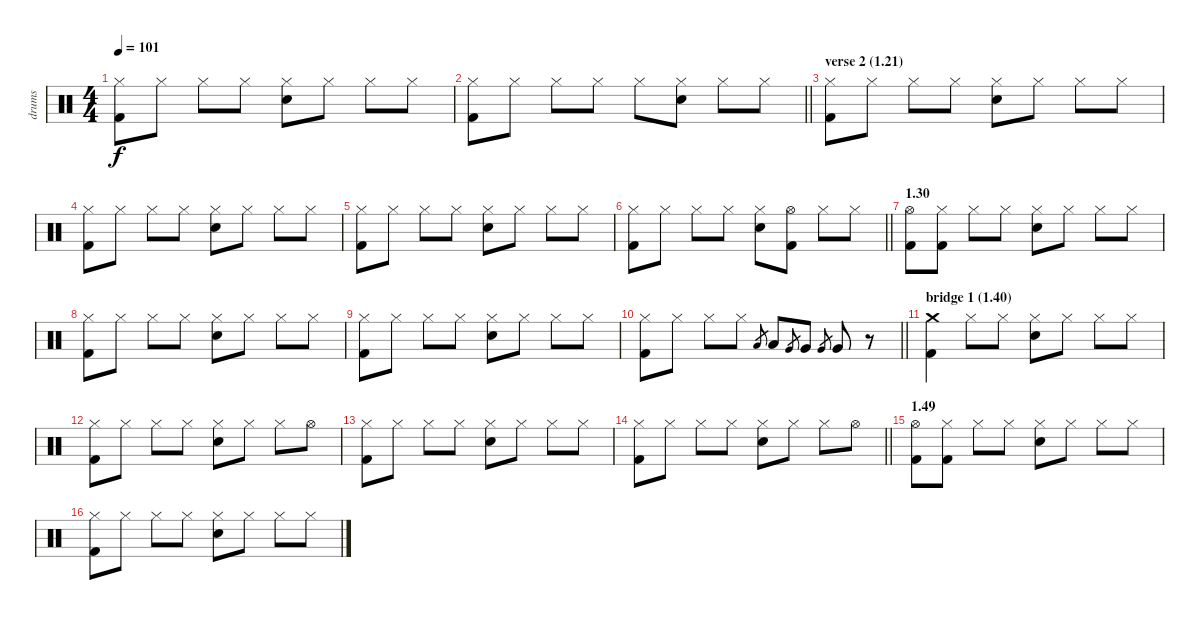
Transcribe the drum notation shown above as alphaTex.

\track ("drums" "drums") {instrument percussion}
\staff {score}
\articulation defaults
\ts (4 4)
\tempo 101
\clef neutral
\ks c
("Hi-Hat (closed)" "Kick (hit) 2").8{dy f} "Hi-Hat (closed)".8 "Hi-Hat (closed)".8 "Hi-Hat (closed)".8 ("Hi-Hat (closed)" "Electric Snare (hit)").8 "Hi-Hat (closed)".8 "Hi-Hat (closed)".8 "Hi-Hat (closed)".8 |
\barLineRight lightlight
("Hi-Hat (closed)" "Kick (hit) 2").8 "Hi-Hat (closed)".8 "Hi-Hat (closed)".8 "Hi-Hat (closed)".8 "Hi-Hat (closed)".8 ("Hi-Hat (closed)" "Electric Snare (hit)").8 "Hi-Hat (closed)".8 "Hi-Hat (closed)".8 |
\section ("" "verse 2 (1.21)")
("Hi-Hat (closed)" "Kick (hit) 2").8 "Hi-Hat (closed)".8 "Hi-Hat (closed)".8 "Hi-Hat (closed)".8 ("Hi-Hat (closed)" "Electric Snare (hit)").8 "Hi-Hat (closed)".8 "Hi-Hat (closed)".8 "Hi-Hat (closed)".8 |
("Hi-Hat (closed)" "Kick (hit) 2").8 "Hi-Hat (closed)".8 "Hi-Hat (closed)".8 "Hi-Hat (closed)".8 ("Hi-Hat (closed)" "Electric Snare (hit)").8 "Hi-Hat (closed)".8 "Hi-Hat (closed)".8 "Hi-Hat (closed)".8 |
("Hi-Hat (closed)" "Kick (hit) 2").8 "Hi-Hat (closed)".8 "Hi-Hat (closed)".8 "Hi-Hat (closed)".8 ("Hi-Hat (closed)" "Electric Snare (hit)").8 "Hi-Hat (closed)".8 "Hi-Hat (closed)".8 "Hi-Hat (closed)".8 |
\barLineRight lightlight
("Hi-Hat (closed)" "Kick (hit) 2").8 "Hi-Hat (closed)".8 "Hi-Hat (closed)".8 "Hi-Hat (closed)".8 ("Hi-Hat (closed)" "Electric Snare (hit)").8 ("Hi-Hat (open)" "Kick (hit) 2").8 "Hi-Hat (closed)".8 "Hi-Hat (closed)".8 |
\section ("" "1.30")
("Hi-Hat (open)" "Kick (hit) 2").8 ("Hi-Hat (closed)" "Kick (hit) 2").8 "Hi-Hat (closed)".8 "Hi-Hat (closed)".8 ("Hi-Hat (closed)" "Electric Snare (hit)").8 "Hi-Hat (closed)".8 "Hi-Hat (closed)".8 "Hi-Hat (closed)".8 |
("Hi-Hat (closed)" "Kick (hit) 2").8 "Hi-Hat (closed)".8 "Hi-Hat (closed)".8 "Hi-Hat (closed)".8 ("Hi-Hat (closed)" "Electric Snare (hit)").8 "Hi-Hat (closed)".8 "Hi-Hat (closed)".8 "Hi-Hat (closed)".8 |
("Hi-Hat (closed)" "Kick (hit) 2").8 "Hi-Hat (closed)".8 "Hi-Hat (closed)".8 "Hi-Hat (closed)".8 ("Hi-Hat (closed)" "Electric Snare (hit)").8 "Hi-Hat (closed)".8 "Hi-Hat (closed)".8 "Hi-Hat (closed)".8 |
\barLineRight lightlight
("Hi-Hat (closed)" "Kick (hit) 2").8 "Hi-Hat (closed)".8 "Hi-Hat (closed)".8 "Hi-Hat (closed)".8 "Low Tom (hit)".8{gr} "Low Tom (hit)".8 "Very Low Tom (hit)".8{gr} "Very Low Tom (hit)".8 "Very Low Tom (hit)".8{gr} "Very Low Tom (hit)".8 r.8 |
\section ("" "bridge 1 (1.40)")
("Crash medium (hit)" "Kick (hit) 2").4 "Hi-Hat (closed)".8 "Hi-Hat (closed)".8 ("Hi-Hat (closed)" "Electric Snare (hit)").8 "Hi-Hat (closed)".8 "Hi-Hat (closed)".8 "Hi-Hat (closed)".8 |
("Hi-Hat (closed)" "Kick (hit) 2").8 "Hi-Hat (closed)".8 "Hi-Hat (closed)".8 "Hi-Hat (closed)".8 ("Hi-Hat (closed)" "Electric Snare (hit)").8 "Hi-Hat (closed)".8 "Hi-Hat (closed)".8 "Hi-Hat (open)".8 |
("Hi-Hat (closed)" "Kick (hit) 2").8 "Hi-Hat (closed)".8 "Hi-Hat (closed)".8 "Hi-Hat (closed)".8 ("Hi-Hat (closed)" "Electric Snare (hit)").8 "Hi-Hat (closed)".8 "Hi-Hat (closed)".8 "Hi-Hat (closed)".8 |
\barLineRight lightlight
("Hi-Hat (closed)" "Kick (hit) 2").8 "Hi-Hat (closed)".8 "Hi-Hat (closed)".8 "Hi-Hat (closed)".8 ("Hi-Hat (closed)" "Electric Snare (hit)").8 "Hi-Hat (closed)".8 "Hi-Hat (closed)".8 "Hi-Hat (open)".8 |
\section ("" "1.49")
("Hi-Hat (open)" "Kick (hit) 2").8 ("Hi-Hat (closed)" "Kick (hit) 2").8 "Hi-Hat (closed)".8 "Hi-Hat (closed)".8 ("Hi-Hat (closed)" "Electric Snare (hit)").8 "Hi-Hat (closed)".8 "Hi-Hat (closed)".8 "Hi-Hat (closed)".8 |
("Hi-Hat (closed)" "Kick (hit) 2").8 "Hi-Hat (closed)".8 "Hi-Hat (closed)".8 "Hi-Hat (closed)".8 ("Hi-Hat (closed)" "Electric Snare (hit)").8 "Hi-Hat (closed)".8 "Hi-Hat (closed)".8 "Hi-Hat (closed)".8
